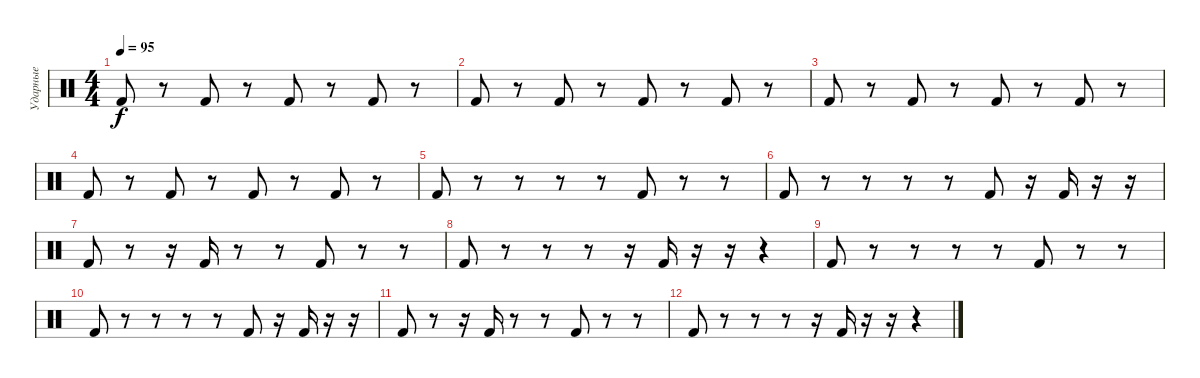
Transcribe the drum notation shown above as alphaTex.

\track ("Ударные" "Ударные") {instrument percussion}
\staff {score}
\articulation defaults
\ts (4 4)
\tempo 95
\clef neutral
\ks c "Kick (hit) 2".8{dy f}
r.8 "Kick (hit) 2".8 r.8 "Kick (hit) 2".8 r.8 "Kick (hit) 2".8 r.8 |
"Kick (hit) 2".8 r.8 "Kick (hit) 2".8 r.8 "Kick (hit) 2".8 r.8 "Kick (hit) 2".8 r.8 |
"Kick (hit) 2".8 r.8 "Kick (hit) 2".8 r.8 "Kick (hit) 2".8 r.8 "Kick (hit) 2".8 r.8 |
"Kick (hit) 2".8 r.8 "Kick (hit) 2".8 r.8 "Kick (hit) 2".8 r.8 "Kick (hit) 2".8 r.8 |
"Kick (hit) 2".8 r.8 r.8 r.8 r.8 "Kick (hit) 2".8 r.8 r.8 |
"Kick (hit) 2".8 r.8 r.8 r.8 r.8 "Kick (hit) 2".8 r.16 "Kick (hit) 2".16 r.16 r.16 |
"Kick (hit) 2".8 r.8 r.16 "Kick (hit) 2".16 r.8 r.8 "Kick (hit) 2".8 r.8 r.8 |
"Kick (hit) 2".8 r.8 r.8 r.8 r.16 "Kick (hit) 2".16 r.16 r.16 r.4 |
"Kick (hit) 2".8 r.8 r.8 r.8 r.8 "Kick (hit) 2".8 r.8 r.8 |
"Kick (hit) 2".8 r.8 r.8 r.8 r.8 "Kick (hit) 2".8 r.16 "Kick (hit) 2".16 r.16 r.16 |
"Kick (hit) 2".8 r.8 r.16 "Kick (hit) 2".16 r.8 r.8 "Kick (hit) 2".8 r.8 r.8 |
"Kick (hit) 2".8 r.8 r.8 r.8 r.16 "Kick (hit) 2".16 r.16 r.16 r.4
